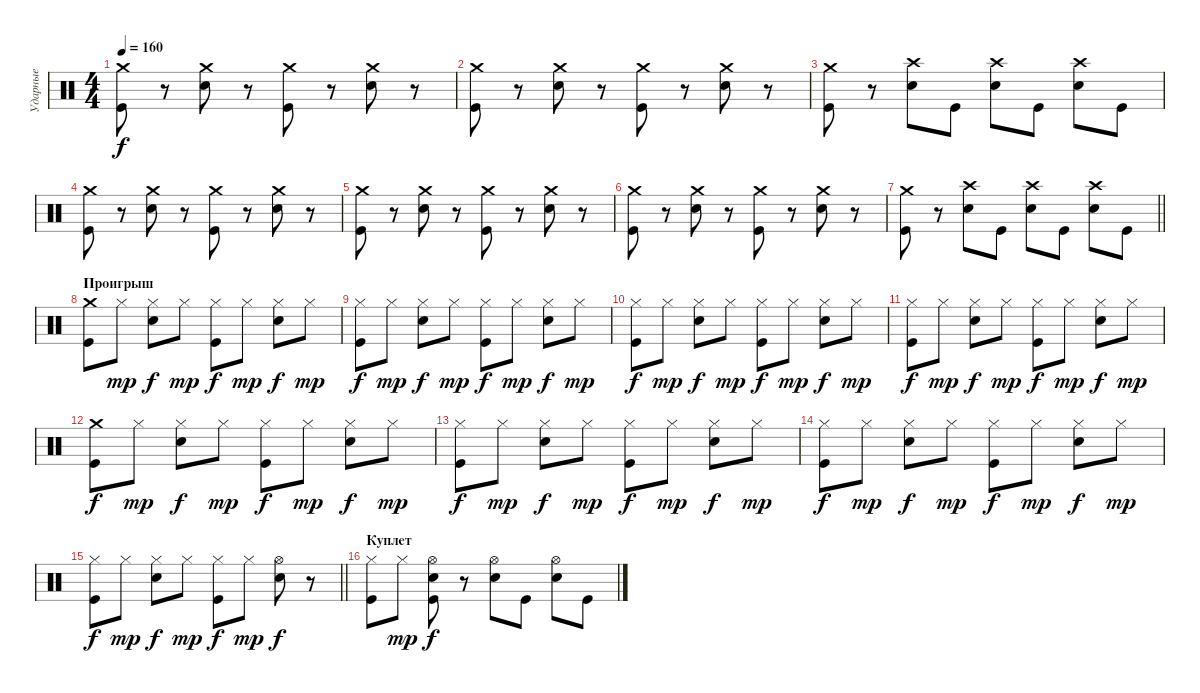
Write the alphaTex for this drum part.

\track ("Ударные" "Ударные") {instrument percussion}
\staff {score}
\articulation defaults
\ts (4 4)
\tempo 160
\clef neutral
\ks c
("Crash medium (hit)" "Kick (hit)").8{dy f} r.8 ("Crash medium (hit)" "Electric Snare (hit)").8 r.8 ("Crash medium (hit)" "Kick (hit)").8 r.8 ("Crash medium (hit)" "Electric Snare (hit)").8 r.8 |
("Crash medium (hit)" "Kick (hit)").8 r.8 ("Crash medium (hit)" "Electric Snare (hit)").8 r.8 ("Crash medium (hit)" "Kick (hit)").8 r.8 ("Crash medium (hit)" "Electric Snare (hit)").8 r.8 |
("Crash medium (hit)" "Kick (hit)").8 r.8 ("Crash high (hit)" "Electric Snare (hit)").8 "Kick (hit)".8 ("Crash high (hit)" "Electric Snare (hit)").8 "Kick (hit)".8 ("Crash high (hit)" "Electric Snare (hit)").8 "Kick (hit)".8 |
("Crash medium (hit)" "Kick (hit)").8 r.8 ("Crash medium (hit)" "Electric Snare (hit)").8 r.8 ("Crash medium (hit)" "Kick (hit)").8 r.8 ("Crash medium (hit)" "Electric Snare (hit)").8 r.8 |
("Crash medium (hit)" "Kick (hit)").8 r.8 ("Crash medium (hit)" "Electric Snare (hit)").8 r.8 ("Crash medium (hit)" "Kick (hit)").8 r.8 ("Crash medium (hit)" "Electric Snare (hit)").8 r.8 |
("Crash medium (hit)" "Kick (hit)").8 r.8 ("Crash medium (hit)" "Electric Snare (hit)").8 r.8 ("Crash medium (hit)" "Kick (hit)").8 r.8 ("Crash medium (hit)" "Electric Snare (hit)").8 r.8 |
\barLineRight lightlight
("Crash medium (hit)" "Kick (hit)").8 r.8 ("Crash high (hit)" "Electric Snare (hit)").8 "Kick (hit)".8 ("Crash high (hit)" "Electric Snare (hit)").8 "Kick (hit)".8 ("Crash high (hit)" "Electric Snare (hit)").8 "Kick (hit)".8 |
\section ("" "Проигрыш")
("Crash medium (hit)" "Kick (hit)").8 "Hi-Hat (closed)".8{dy mp} ("Hi-Hat (closed)" "Electric Snare (hit)").8{dy f} "Hi-Hat (closed)".8{dy mp} ("Hi-Hat (closed)" "Kick (hit)").8{dy f} "Hi-Hat (closed)".8{dy mp} ("Hi-Hat (closed)" "Electric Snare (hit)").8{dy f} "Hi-Hat (closed)".8{dy mp} |
("Hi-Hat (closed)" "Kick (hit)").8{dy f} "Hi-Hat (closed)".8{dy mp} ("Hi-Hat (closed)" "Electric Snare (hit)").8{dy f} "Hi-Hat (closed)".8{dy mp} ("Hi-Hat (closed)" "Kick (hit)").8{dy f} "Hi-Hat (closed)".8{dy mp} ("Hi-Hat (closed)" "Electric Snare (hit)").8{dy f} "Hi-Hat (closed)".8{dy mp} |
("Hi-Hat (closed)" "Kick (hit)").8{dy f} "Hi-Hat (closed)".8{dy mp} ("Hi-Hat (closed)" "Electric Snare (hit)").8{dy f} "Hi-Hat (closed)".8{dy mp} ("Hi-Hat (closed)" "Kick (hit)").8{dy f} "Hi-Hat (closed)".8{dy mp} ("Hi-Hat (closed)" "Electric Snare (hit)").8{dy f} "Hi-Hat (closed)".8{dy mp} |
("Hi-Hat (closed)" "Kick (hit)").8{dy f} "Hi-Hat (closed)".8{dy mp} ("Hi-Hat (closed)" "Electric Snare (hit)").8{dy f} "Hi-Hat (closed)".8{dy mp} ("Hi-Hat (closed)" "Kick (hit)").8{dy f} "Hi-Hat (closed)".8{dy mp} ("Hi-Hat (closed)" "Electric Snare (hit)").8{dy f} "Hi-Hat (closed)".8{dy mp} |
("Crash medium (hit)" "Kick (hit)").8{dy f} "Hi-Hat (closed)".8{dy mp} ("Hi-Hat (closed)" "Electric Snare (hit)").8{dy f} "Hi-Hat (closed)".8{dy mp} ("Hi-Hat (closed)" "Kick (hit)").8{dy f} "Hi-Hat (closed)".8{dy mp} ("Hi-Hat (closed)" "Electric Snare (hit)").8{dy f} "Hi-Hat (closed)".8{dy mp} |
("Hi-Hat (closed)" "Kick (hit)").8{dy f} "Hi-Hat (closed)".8{dy mp} ("Hi-Hat (closed)" "Electric Snare (hit)").8{dy f} "Hi-Hat (closed)".8{dy mp} ("Hi-Hat (closed)" "Kick (hit)").8{dy f} "Hi-Hat (closed)".8{dy mp} ("Hi-Hat (closed)" "Electric Snare (hit)").8{dy f} "Hi-Hat (closed)".8{dy mp} |
("Hi-Hat (closed)" "Kick (hit)").8{dy f} "Hi-Hat (closed)".8{dy mp} ("Hi-Hat (closed)" "Electric Snare (hit)").8{dy f} "Hi-Hat (closed)".8{dy mp} ("Hi-Hat (closed)" "Kick (hit)").8{dy f} "Hi-Hat (closed)".8{dy mp} ("Hi-Hat (closed)" "Electric Snare (hit)").8{dy f} "Hi-Hat (closed)".8{dy mp} |
\barLineRight lightlight
("Hi-Hat (closed)" "Kick (hit)").8{dy f} "Hi-Hat (closed)".8{dy mp} ("Hi-Hat (closed)" "Electric Snare (hit)").8{dy f} "Hi-Hat (closed)".8{dy mp} ("Hi-Hat (closed)" "Kick (hit)").8{dy f} "Hi-Hat (closed)".8{dy mp} ("Hi-Hat (open)" "Electric Snare (hit)").8{dy f} r.8 |
\section ("" "Куплет")
("Hi-Hat (closed)" "Kick (hit)").8 "Hi-Hat (closed)".8{dy mp} ("Hi-Hat (open)" "Electric Snare (hit)" "Kick (hit)").8{dy f} r.8 ("Hi-Hat (open)" "Electric Snare (hit)").8 "Kick (hit)".8 ("Hi-Hat (open)" "Electric Snare (hit)").8 "Kick (hit)".8
